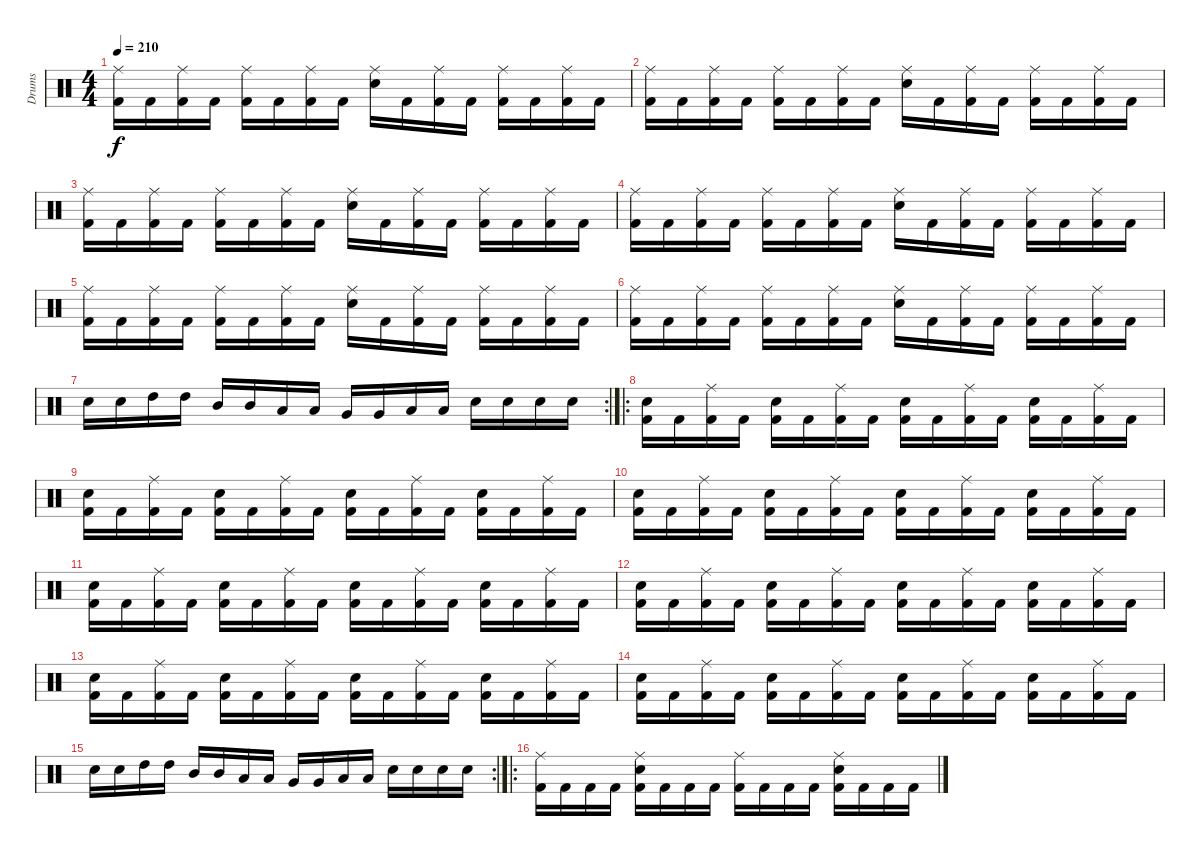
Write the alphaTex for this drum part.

\track ("Drums" "Drums") {instrument percussion}
\staff {score}
\articulation defaults
\ts (4 4)
\tempo 210
\clef neutral
\ks c
("Ride (middle)" "Kick (hit) 2").16{dy f} "Kick (hit) 2".16 ("Ride (middle)" "Kick (hit) 2").16 "Kick (hit) 2".16 ("Ride (middle)" "Kick (hit) 2").16 "Kick (hit) 2".16 ("Ride (middle)" "Kick (hit) 2").16 "Kick (hit) 2".16 ("Ride (middle)" "Electric Snare (hit)").16 "Kick (hit) 2".16 ("Ride (middle)" "Kick (hit) 2").16 "Kick (hit) 2".16 ("Ride (middle)" "Kick (hit) 2").16 "Kick (hit) 2".16 ("Ride (middle)" "Kick (hit) 2").16 "Kick (hit) 2".16 |
("Ride (middle)" "Kick (hit) 2").16 "Kick (hit) 2".16 ("Ride (middle)" "Kick (hit) 2").16 "Kick (hit) 2".16 ("Ride (middle)" "Kick (hit) 2").16 "Kick (hit) 2".16 ("Ride (middle)" "Kick (hit) 2").16 "Kick (hit) 2".16 ("Ride (middle)" "Electric Snare (hit)").16 "Kick (hit) 2".16 ("Ride (middle)" "Kick (hit) 2").16 "Kick (hit) 2".16 ("Ride (middle)" "Kick (hit) 2").16 "Kick (hit) 2".16 ("Ride (middle)" "Kick (hit) 2").16 "Kick (hit) 2".16 |
("Ride (middle)" "Kick (hit) 2").16 "Kick (hit) 2".16 ("Ride (middle)" "Kick (hit) 2").16 "Kick (hit) 2".16 ("Ride (middle)" "Kick (hit) 2").16 "Kick (hit) 2".16 ("Ride (middle)" "Kick (hit) 2").16 "Kick (hit) 2".16 ("Ride (middle)" "Electric Snare (hit)").16 "Kick (hit) 2".16 ("Ride (middle)" "Kick (hit) 2").16 "Kick (hit) 2".16 ("Ride (middle)" "Kick (hit) 2").16 "Kick (hit) 2".16 ("Ride (middle)" "Kick (hit) 2").16 "Kick (hit) 2".16 |
("Ride (middle)" "Kick (hit) 2").16 "Kick (hit) 2".16 ("Ride (middle)" "Kick (hit) 2").16 "Kick (hit) 2".16 ("Ride (middle)" "Kick (hit) 2").16 "Kick (hit) 2".16 ("Ride (middle)" "Kick (hit) 2").16 "Kick (hit) 2".16 ("Ride (middle)" "Electric Snare (hit)").16 "Kick (hit) 2".16 ("Ride (middle)" "Kick (hit) 2").16 "Kick (hit) 2".16 ("Ride (middle)" "Kick (hit) 2").16 "Kick (hit) 2".16 ("Ride (middle)" "Kick (hit) 2").16 "Kick (hit) 2".16 |
("Ride (middle)" "Kick (hit) 2").16 "Kick (hit) 2".16 ("Ride (middle)" "Kick (hit) 2").16 "Kick (hit) 2".16 ("Ride (middle)" "Kick (hit) 2").16 "Kick (hit) 2".16 ("Ride (middle)" "Kick (hit) 2").16 "Kick (hit) 2".16 ("Ride (middle)" "Electric Snare (hit)").16 "Kick (hit) 2".16 ("Ride (middle)" "Kick (hit) 2").16 "Kick (hit) 2".16 ("Ride (middle)" "Kick (hit) 2").16 "Kick (hit) 2".16 ("Ride (middle)" "Kick (hit) 2").16 "Kick (hit) 2".16 |
("Ride (middle)" "Kick (hit) 2").16 "Kick (hit) 2".16 ("Ride (middle)" "Kick (hit) 2").16 "Kick (hit) 2".16 ("Ride (middle)" "Kick (hit) 2").16 "Kick (hit) 2".16 ("Ride (middle)" "Kick (hit) 2").16 "Kick (hit) 2".16 ("Ride (middle)" "Electric Snare (hit)").16 "Kick (hit) 2".16 ("Ride (middle)" "Kick (hit) 2").16 "Kick (hit) 2".16 ("Ride (middle)" "Kick (hit) 2").16 "Kick (hit) 2".16 ("Ride (middle)" "Kick (hit) 2").16 "Kick (hit) 2".16 |
\rc 2 "Electric Snare (hit)".16 "Electric Snare (hit)".16 "High Tom (hit)".16 "High Tom (hit)".16 "Mid Tom (hit)".16 "Mid Tom (hit)".16 "Low Tom (hit)".16 "Low Tom (hit)".16 "Very Low Tom (hit)".16 "Very Low Tom (hit)".16 "Low Tom (hit)".16 "Low Tom (hit)".16 "Electric Snare (hit)".16 "Electric Snare (hit)".16 "Electric Snare (hit)".16 "Electric Snare (hit)".16
|
\ro
("Electric Snare (hit)" "Kick (hit) 2").16 "Kick (hit) 2".16 ("Ride (middle)" "Kick (hit) 2").16 "Kick (hit) 2".16 ("Electric Snare (hit)" "Kick (hit) 2").16 "Kick (hit) 2".16 ("Ride (middle)" "Kick (hit) 2").16 "Kick (hit) 2".16 ("Electric Snare (hit)" "Kick (hit) 2").16 "Kick (hit) 2".16 ("Ride (middle)" "Kick (hit) 2").16 "Kick (hit) 2".16 ("Electric Snare (hit)" "Kick (hit) 2").16 "Kick (hit) 2".16 ("Ride (middle)" "Kick (hit) 2").16 "Kick (hit) 2".16 |
("Electric Snare (hit)" "Kick (hit) 2").16 "Kick (hit) 2".16 ("Ride (middle)" "Kick (hit) 2").16 "Kick (hit) 2".16 ("Electric Snare (hit)" "Kick (hit) 2").16 "Kick (hit) 2".16 ("Ride (middle)" "Kick (hit) 2").16 "Kick (hit) 2".16 ("Electric Snare (hit)" "Kick (hit) 2").16 "Kick (hit) 2".16 ("Ride (middle)" "Kick (hit) 2").16 "Kick (hit) 2".16 ("Electric Snare (hit)" "Kick (hit) 2").16 "Kick (hit) 2".16 ("Ride (middle)" "Kick (hit) 2").16 "Kick (hit) 2".16 |
("Electric Snare (hit)" "Kick (hit) 2").16 "Kick (hit) 2".16 ("Ride (middle)" "Kick (hit) 2").16 "Kick (hit) 2".16 ("Electric Snare (hit)" "Kick (hit) 2").16 "Kick (hit) 2".16 ("Ride (middle)" "Kick (hit) 2").16 "Kick (hit) 2".16 ("Electric Snare (hit)" "Kick (hit) 2").16 "Kick (hit) 2".16 ("Ride (middle)" "Kick (hit) 2").16 "Kick (hit) 2".16 ("Electric Snare (hit)" "Kick (hit) 2").16 "Kick (hit) 2".16 ("Ride (middle)" "Kick (hit) 2").16 "Kick (hit) 2".16 |
("Electric Snare (hit)" "Kick (hit) 2").16 "Kick (hit) 2".16 ("Ride (middle)" "Kick (hit) 2").16 "Kick (hit) 2".16 ("Electric Snare (hit)" "Kick (hit) 2").16 "Kick (hit) 2".16 ("Ride (middle)" "Kick (hit) 2").16 "Kick (hit) 2".16 ("Electric Snare (hit)" "Kick (hit) 2").16 "Kick (hit) 2".16 ("Ride (middle)" "Kick (hit) 2").16 "Kick (hit) 2".16 ("Electric Snare (hit)" "Kick (hit) 2").16 "Kick (hit) 2".16 ("Ride (middle)" "Kick (hit) 2").16 "Kick (hit) 2".16 |
("Electric Snare (hit)" "Kick (hit) 2").16 "Kick (hit) 2".16 ("Ride (middle)" "Kick (hit) 2").16 "Kick (hit) 2".16 ("Electric Snare (hit)" "Kick (hit) 2").16 "Kick (hit) 2".16 ("Ride (middle)" "Kick (hit) 2").16 "Kick (hit) 2".16 ("Electric Snare (hit)" "Kick (hit) 2").16 "Kick (hit) 2".16 ("Ride (middle)" "Kick (hit) 2").16 "Kick (hit) 2".16 ("Electric Snare (hit)" "Kick (hit) 2").16 "Kick (hit) 2".16 ("Ride (middle)" "Kick (hit) 2").16 "Kick (hit) 2".16 |
("Electric Snare (hit)" "Kick (hit) 2").16 "Kick (hit) 2".16 ("Ride (middle)" "Kick (hit) 2").16 "Kick (hit) 2".16 ("Electric Snare (hit)" "Kick (hit) 2").16 "Kick (hit) 2".16 ("Ride (middle)" "Kick (hit) 2").16 "Kick (hit) 2".16 ("Electric Snare (hit)" "Kick (hit) 2").16 "Kick (hit) 2".16 ("Ride (middle)" "Kick (hit) 2").16 "Kick (hit) 2".16 ("Electric Snare (hit)" "Kick (hit) 2").16 "Kick (hit) 2".16 ("Ride (middle)" "Kick (hit) 2").16 "Kick (hit) 2".16 |
("Electric Snare (hit)" "Kick (hit) 2").16 "Kick (hit) 2".16 ("Ride (middle)" "Kick (hit) 2").16 "Kick (hit) 2".16 ("Electric Snare (hit)" "Kick (hit) 2").16 "Kick (hit) 2".16 ("Ride (middle)" "Kick (hit) 2").16 "Kick (hit) 2".16 ("Electric Snare (hit)" "Kick (hit) 2").16 "Kick (hit) 2".16 ("Ride (middle)" "Kick (hit) 2").16 "Kick (hit) 2".16 ("Electric Snare (hit)" "Kick (hit) 2").16 "Kick (hit) 2".16 ("Ride (middle)" "Kick (hit) 2").16 "Kick (hit) 2".16 |
\rc 2 "Electric Snare (hit)".16 "Electric Snare (hit)".16 "High Tom (hit)".16 "High Tom (hit)".16 "Mid Tom (hit)".16 "Mid Tom (hit)".16 "Low Tom (hit)".16 "Low Tom (hit)".16 "Very Low Tom (hit)".16 "Very Low Tom (hit)".16 "Low Tom (hit)".16 "Low Tom (hit)".16 "Electric Snare (hit)".16 "Electric Snare (hit)".16 "Electric Snare (hit)".16 "Electric Snare (hit)".16
|
\ro
("Ride (middle)" "Kick (hit) 2").16 "Kick (hit) 2".16 "Kick (hit) 2".16 "Kick (hit) 2".16 ("Ride (middle)" "Electric Snare (hit)" "Kick (hit) 2").16 "Kick (hit) 2".16 "Kick (hit) 2".16 "Kick (hit) 2".16 ("Ride (middle)" "Kick (hit) 2").16 "Kick (hit) 2".16 "Kick (hit) 2".16 "Kick (hit) 2".16 ("Ride (middle)" "Electric Snare (hit)" "Kick (hit) 2").16 "Kick (hit) 2".16 "Kick (hit) 2".16 "Kick (hit) 2".16
